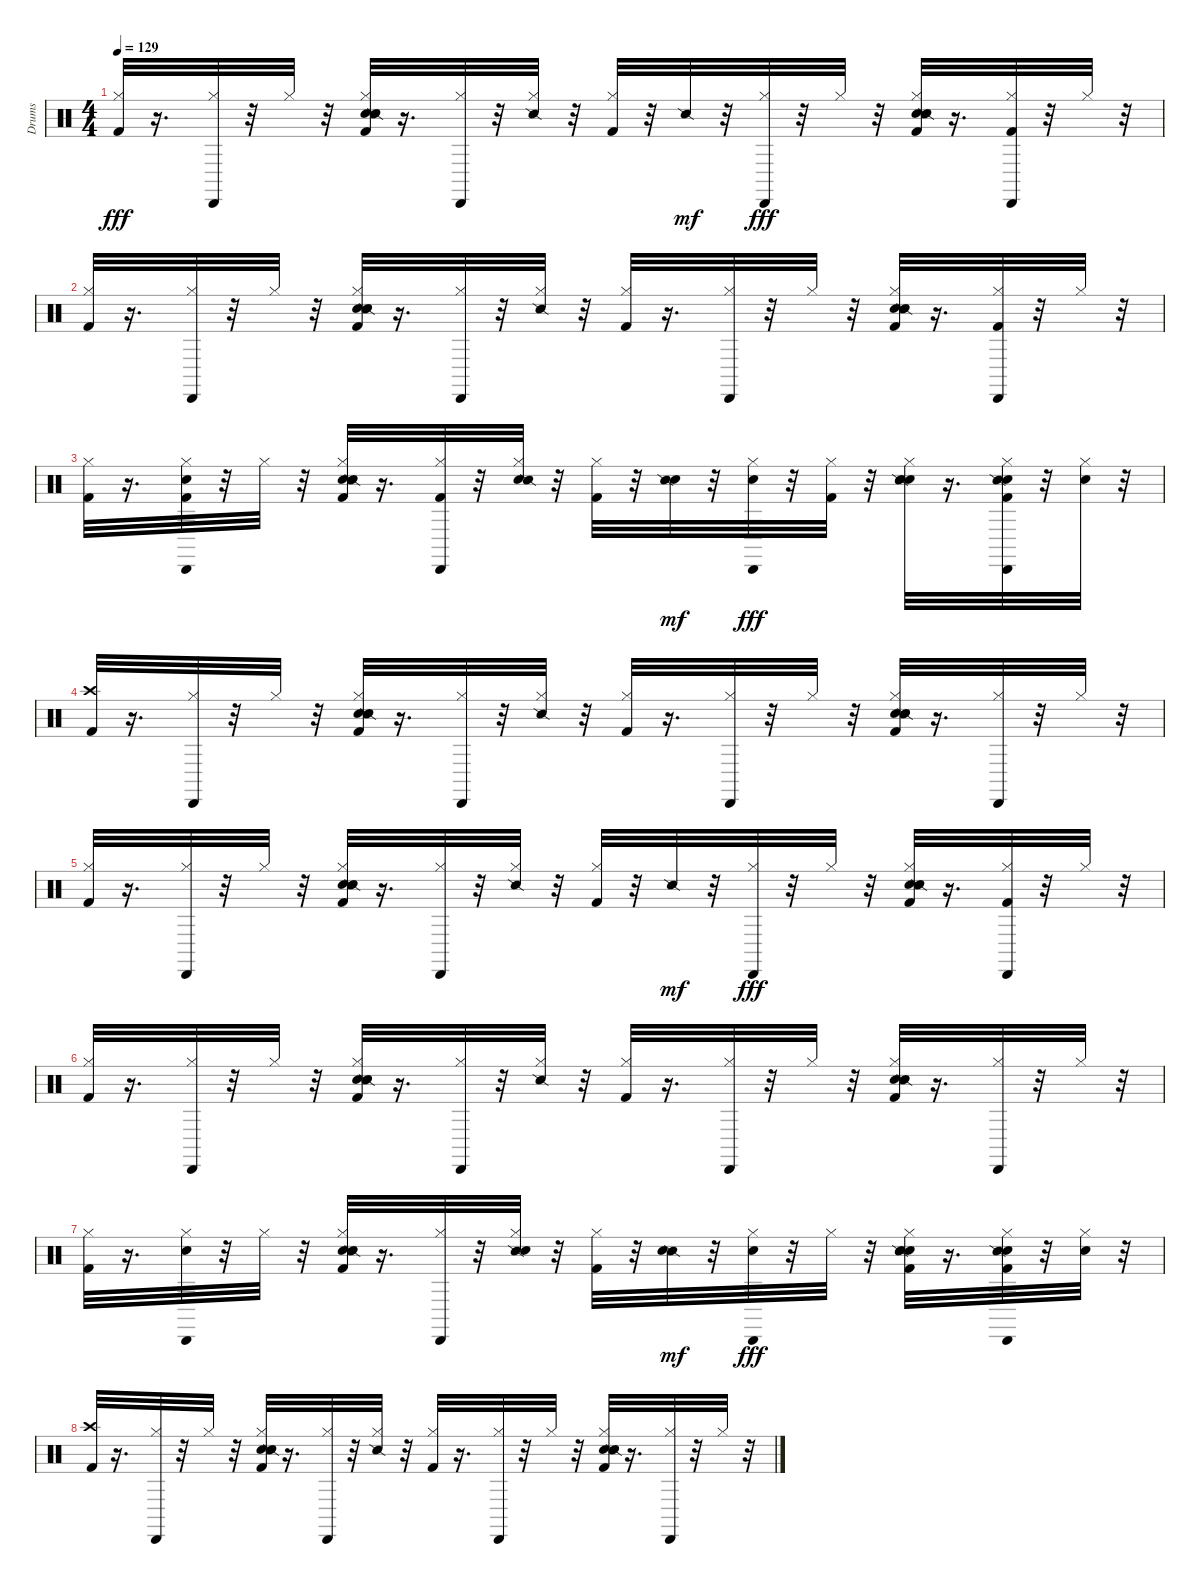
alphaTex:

\track ("Drums" "Drums") {instrument percussion}
\staff {score}
\articulation defaults
\ts (4 4)
\tempo 129
\clef neutral
\ks c
("Kick (hit) 2" "Hi-Hat (closed)").32{dy fff} r.16{d} ("Cabasa (hit)" "Hi-Hat (closed)").32 r.32 "Hi-Hat (closed)".32 r.32 ("Snare (hit)" "Snare (side stick) 2" "Hi-Hat (closed)" "Kick (hit) 2" "Hand Clap (hit)").32 r.16{d} ("Cabasa (hit)" "Hi-Hat (closed)").32 r.32 ("Snare (side stick) 2" "Hi-Hat (closed)").32 r.32 ("Kick (hit) 2" "Hi-Hat (closed)").32 r.32 "Snare (side stick) 2".32{dy mf} r.32 ("Cabasa (hit)" "Hi-Hat (closed)").32{dy fff} r.32 "Hi-Hat (closed)".32 r.32 ("Snare (hit)" "Snare (side stick) 2" "Hi-Hat (closed)" "Kick (hit) 2" "Hand Clap (hit)").32 r.16{d} ("Kick (hit) 2" "Cabasa (hit)" "Hi-Hat (closed)").32 r.32 "Hi-Hat (closed)".32 r.32 |
("Kick (hit) 2" "Hi-Hat (closed)").32 r.16{d} ("Cabasa (hit)" "Hi-Hat (closed)").32 r.32 "Hi-Hat (closed)".32 r.32 ("Snare (hit)" "Hand Clap (hit)" "Snare (side stick) 2" "Hi-Hat (closed)" "Kick (hit) 2").32 r.16{d} ("Cabasa (hit)" "Hi-Hat (closed)").32 r.32 ("Snare (side stick) 2" "Hi-Hat (closed)").32 r.32 ("Kick (hit) 2" "Hi-Hat (closed)").32 r.16{d} ("Cabasa (hit)" "Hi-Hat (closed)").32 r.32 "Hi-Hat (closed)".32 r.32 ("Snare (hit)" "Hand Clap (hit)" "Snare (side stick) 2" "Hi-Hat (closed)" "Kick (hit) 2").32 r.16{d} ("Cabasa (hit)" "Hi-Hat (closed)" "Kick (hit) 2").32 r.32 "Hi-Hat (closed)".32 r.32 |
("Kick (hit) 2" "Hi-Hat (closed)").32 r.16{d} ("Hand Clap (hit)" "Cabasa (hit)" "Hi-Hat (closed)" "Kick (hit) 2").32 r.32 "Hi-Hat (closed)".32 r.32 ("Snare (hit)" "Hand Clap (hit)" "Snare (side stick) 2" "Hi-Hat (closed)" "Kick (hit) 2").32 r.16{d} ("Cabasa (hit)" "Hi-Hat (closed)" "Kick (hit) 2").32 r.32 ("Hand Clap (hit)" "Snare (side stick) 2" "Hi-Hat (closed)").32 r.32 ("Kick (hit) 2" "Hi-Hat (closed)").32 r.32 ("Hand Clap (hit)" "Snare (side stick) 2").32{dy mf} r.32 ("Hand Clap (hit)" "Cabasa (hit)" "Hi-Hat (closed)").32{dy fff} r.32 ("Hi-Hat (closed)" "Kick (hit) 2").32 r.32 ("Snare (hit)" "Hand Clap (hit)" "Snare (side stick) 2" "Hi-Hat (closed)").32 r.16{d} ("Hand Clap (hit)" "Kick (hit) 2" "Cabasa (hit)" "Hi-Hat (closed)" "Snare (side stick) 2").32 r.32 ("Hand Clap (hit)" "Hi-Hat (closed)").32 r.32 |
("Kick (hit) 2" "Crash high (hit)").32 r.16{d} ("Cabasa (hit)" "Hi-Hat (closed)").32 r.32 "Hi-Hat (closed)".32 r.32 ("Snare (hit)" "Hand Clap (hit)" "Snare (side stick) 2" "Hi-Hat (closed)" "Kick (hit) 2").32 r.16{d} ("Cabasa (hit)" "Hi-Hat (closed)").32 r.32 ("Snare (side stick) 2" "Hi-Hat (closed)").32 r.32 ("Kick (hit) 2" "Hi-Hat (closed)").32 r.16{d} ("Cabasa (hit)" "Hi-Hat (closed)").32 r.32 "Hi-Hat (closed)".32 r.32 ("Snare (hit)" "Hand Clap (hit)" "Snare (side stick) 2" "Hi-Hat (closed)" "Kick (hit) 2").32 r.16{d} ("Cabasa (hit)" "Hi-Hat (closed)").32 r.32 "Hi-Hat (closed)".32 r.32 |
("Kick (hit) 2" "Hi-Hat (closed)").32 r.16{d} ("Cabasa (hit)" "Hi-Hat (closed)").32 r.32 "Hi-Hat (closed)".32 r.32 ("Snare (hit)" "Hand Clap (hit)" "Snare (side stick) 2" "Hi-Hat (closed)" "Kick (hit) 2").32 r.16{d} ("Cabasa (hit)" "Hi-Hat (closed)").32 r.32 ("Snare (side stick) 2" "Hi-Hat (closed)").32 r.32 ("Kick (hit) 2" "Hi-Hat (closed)").32 r.32 "Snare (side stick) 2".32{dy mf} r.32 ("Cabasa (hit)" "Hi-Hat (closed)").32{dy fff} r.32 "Hi-Hat (closed)".32 r.32 ("Snare (hit)" "Hand Clap (hit)" "Snare (side stick) 2" "Hi-Hat (closed)" "Kick (hit) 2").32 r.16{d} ("Kick (hit) 2" "Cabasa (hit)" "Hi-Hat (closed)").32 r.32 "Hi-Hat (closed)".32 r.32 |
("Kick (hit) 2" "Hi-Hat (closed)").32 r.16{d} ("Cabasa (hit)" "Hi-Hat (closed)").32 r.32 "Hi-Hat (closed)".32 r.32 ("Snare (hit)" "Snare (side stick) 2" "Hi-Hat (closed)" "Kick (hit) 2" "Hand Clap (hit)").32 r.16{d} ("Cabasa (hit)" "Hi-Hat (closed)").32 r.32 ("Snare (side stick) 2" "Hi-Hat (closed)").32 r.32 ("Kick (hit) 2" "Hi-Hat (closed)").32 r.16{d} ("Cabasa (hit)" "Hi-Hat (closed)").32 r.32 "Hi-Hat (closed)".32 r.32 ("Snare (hit)" "Snare (side stick) 2" "Hi-Hat (closed)" "Kick (hit) 2" "Hand Clap (hit)").32 r.16{d} ("Cabasa (hit)" "Hi-Hat (closed)").32 r.32 "Hi-Hat (closed)".32 r.32 |
("Kick (hit) 2" "Hi-Hat (closed)").32 r.16{d} ("Cabasa (hit)" "Hi-Hat (closed)" "Hand Clap (hit)").32 r.32 "Hi-Hat (closed)".32 r.32 ("Snare (hit)" "Snare (side stick) 2" "Hi-Hat (closed)" "Kick (hit) 2" "Hand Clap (hit)").32 r.16{d} ("Cabasa (hit)" "Hi-Hat (closed)").32 r.32 ("Snare (side stick) 2" "Hi-Hat (closed)" "Hand Clap (hit)").32 r.32 ("Kick (hit) 2" "Hi-Hat (closed)").32 r.32 ("Snare (side stick) 2" "Hand Clap (hit)").32{dy mf} r.32 ("Cabasa (hit)" "Hi-Hat (closed)" "Hand Clap (hit)").32{dy fff} r.32 "Hi-Hat (closed)".32 r.32 ("Snare (hit)" "Snare (side stick) 2" "Hi-Hat (closed)" "Kick (hit) 2" "Hand Clap (hit)").32 r.16{d} ("Kick (hit) 2" "Cabasa (hit)" "Hi-Hat (closed)" "Hand Clap (hit)" "Snare (side stick) 2").32 r.32 ("Hi-Hat (closed)" "Hand Clap (hit)").32 r.32 |
("Kick (hit) 2" "Crash high (hit)").32 r.16{d} ("Cabasa (hit)" "Hi-Hat (closed)").32 r.32 "Hi-Hat (closed)".32 r.32 ("Snare (hit)" "Hand Clap (hit)" "Snare (side stick) 2" "Hi-Hat (closed)" "Kick (hit) 2").32 r.16{d} ("Cabasa (hit)" "Hi-Hat (closed)").32 r.32 ("Snare (side stick) 2" "Hi-Hat (closed)").32 r.32 ("Kick (hit) 2" "Hi-Hat (closed)").32 r.16{d} ("Cabasa (hit)" "Hi-Hat (closed)").32 r.32 "Hi-Hat (closed)".32 r.32 ("Snare (hit)" "Hand Clap (hit)" "Snare (side stick) 2" "Hi-Hat (closed)" "Kick (hit) 2").32 r.16{d} ("Cabasa (hit)" "Hi-Hat (closed)").32 r.32 "Hi-Hat (closed)".32 r.32
